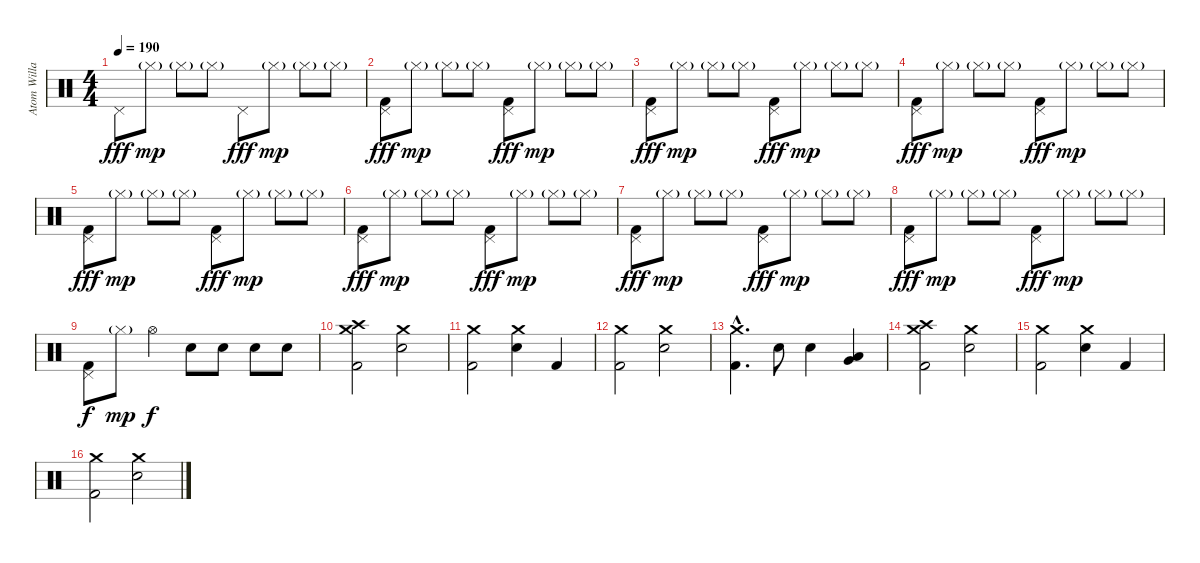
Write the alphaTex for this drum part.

\track ("Atom Willard" "Atom Willa") {instrument percussion}
\staff {score}
\articulation defaults
\ts (4 4)
\tempo 190
\clef neutral
\ks c "Pedal Hi-Hat (hit)".8{dy fff} "Hi-Hat (closed)"{g}.8{dy mp} "Hi-Hat (closed)"{g}.8 "Hi-Hat (closed)"{g}.8 "Pedal Hi-Hat (hit)".8{dy fff} "Hi-Hat (closed)"{g}.8{dy mp} "Hi-Hat (closed)"{g}.8 "Hi-Hat (closed)"{g}.8
|
("Pedal Hi-Hat (hit)" "Kick (hit) 2").8{dy fff} "Hi-Hat (closed)"{g}.8{dy mp} "Hi-Hat (closed)"{g}.8 "Hi-Hat (closed)"{g}.8 ("Pedal Hi-Hat (hit)" "Kick (hit) 2").8{dy fff} "Hi-Hat (closed)"{g}.8{dy mp} "Hi-Hat (closed)"{g}.8 "Hi-Hat (closed)"{g}.8 |
("Pedal Hi-Hat (hit)" "Kick (hit) 2").8{dy fff} "Hi-Hat (closed)"{g}.8{dy mp} "Hi-Hat (closed)"{g}.8 "Hi-Hat (closed)"{g}.8 ("Pedal Hi-Hat (hit)" "Kick (hit) 2").8{dy fff} "Hi-Hat (closed)"{g}.8{dy mp} "Hi-Hat (closed)"{g}.8 "Hi-Hat (closed)"{g}.8 |
("Pedal Hi-Hat (hit)" "Kick (hit) 2").8{dy fff} "Hi-Hat (closed)"{g}.8{dy mp} "Hi-Hat (closed)"{g}.8 "Hi-Hat (closed)"{g}.8 ("Pedal Hi-Hat (hit)" "Kick (hit) 2").8{dy fff} "Hi-Hat (closed)"{g}.8{dy mp} "Hi-Hat (closed)"{g}.8 "Hi-Hat (closed)"{g}.8 |
("Pedal Hi-Hat (hit)" "Kick (hit) 2").8{dy fff} "Hi-Hat (closed)"{g}.8{dy mp} "Hi-Hat (closed)"{g}.8 "Hi-Hat (closed)"{g}.8 ("Pedal Hi-Hat (hit)" "Kick (hit) 2").8{dy fff} "Hi-Hat (closed)"{g}.8{dy mp} "Hi-Hat (closed)"{g}.8 "Hi-Hat (closed)"{g}.8 |
("Pedal Hi-Hat (hit)" "Kick (hit) 2").8{dy fff} "Hi-Hat (closed)"{g}.8{dy mp} "Hi-Hat (closed)"{g}.8 "Hi-Hat (closed)"{g}.8 ("Pedal Hi-Hat (hit)" "Kick (hit) 2").8{dy fff} "Hi-Hat (closed)"{g}.8{dy mp} "Hi-Hat (closed)"{g}.8 "Hi-Hat (closed)"{g}.8 |
("Pedal Hi-Hat (hit)" "Kick (hit) 2").8{dy fff} "Hi-Hat (closed)"{g}.8{dy mp} "Hi-Hat (closed)"{g}.8 "Hi-Hat (closed)"{g}.8 ("Pedal Hi-Hat (hit)" "Kick (hit) 2").8{dy fff} "Hi-Hat (closed)"{g}.8{dy mp} "Hi-Hat (closed)"{g}.8 "Hi-Hat (closed)"{g}.8 |
("Pedal Hi-Hat (hit)" "Kick (hit) 2").8{dy fff} "Hi-Hat (closed)"{g}.8{dy mp} "Hi-Hat (closed)"{g}.8 "Hi-Hat (closed)"{g}.8 ("Pedal Hi-Hat (hit)" "Kick (hit) 2").8{dy fff} "Hi-Hat (closed)"{g}.8{dy mp} "Hi-Hat (closed)"{g}.8 "Hi-Hat (closed)"{g}.8 |
("Pedal Hi-Hat (hit)" "Kick (hit) 2").8{dy f} "Hi-Hat (closed)"{g}.8{dy mp} "Hi-Hat (open)".4{dy f} "Electric Snare (hit)".8 "Electric Snare (hit)".8 "Electric Snare (hit)".8 "Electric Snare (hit)".8 |
("Crash high (hit)" "Crash medium (hit)" "Kick (hit) 2").2 ("Crash medium (hit)" "Electric Snare (hit)").2 |
("Crash medium (hit)" "Kick (hit) 2").2 ("Crash medium (hit)" "Electric Snare (hit)").4 "Kick (hit) 2".4 |
("Crash medium (hit)" "Kick (hit) 2").2 ("Crash medium (hit)" "Electric Snare (hit)").2 |
("Crash medium (hit)"{hac} "Kick (hit) 2"{hac}).4{d} "Electric Snare (hit)".8 "Electric Snare (hit)".4 ("Very Low Tom (hit)" "Low Floor Tom (hit)").4 |
("Crash high (hit)" "Crash medium (hit)" "Kick (hit) 2").2 ("Crash medium (hit)" "Electric Snare (hit)").2 |
("Crash medium (hit)" "Kick (hit) 2").2 ("Crash medium (hit)" "Electric Snare (hit)").4 "Kick (hit) 2".4 |
("Crash medium (hit)" "Kick (hit) 2").2 ("Crash medium (hit)" "Electric Snare (hit)").2
